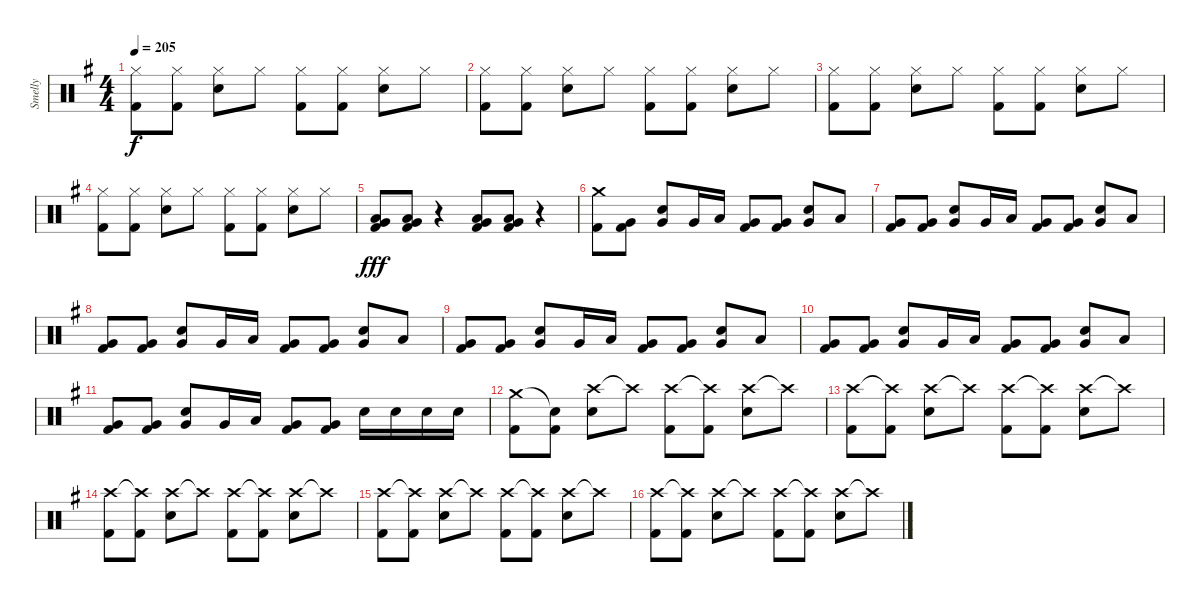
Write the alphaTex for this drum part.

\track ("Smelly" "Smelly") {instrument percussion}
\staff {score}
\articulation defaults
\ts (4 4)
\tempo 205
\clef neutral
\ks eminor
("Hi-Hat (closed)" "Kick (hit) 2").8{dy f} ("Hi-Hat (closed)" "Kick (hit) 2").8 ("Hi-Hat (closed)" "Snare (hit) 2").8 "Hi-Hat (closed)".8 ("Hi-Hat (closed)" "Kick (hit) 2").8 ("Hi-Hat (closed)" "Kick (hit) 2").8 ("Hi-Hat (closed)" "Snare (hit) 2").8 "Hi-Hat (closed)".8 |
("Hi-Hat (closed)" "Kick (hit) 2").8 ("Hi-Hat (closed)" "Kick (hit) 2").8 ("Hi-Hat (closed)" "Snare (hit) 2").8 "Hi-Hat (closed)".8 ("Hi-Hat (closed)" "Kick (hit) 2").8 ("Hi-Hat (closed)" "Kick (hit) 2").8 ("Hi-Hat (closed)" "Snare (hit) 2").8 "Hi-Hat (closed)".8 |
("Hi-Hat (closed)" "Kick (hit) 2").8 ("Hi-Hat (closed)" "Kick (hit) 2").8 ("Hi-Hat (closed)" "Snare (hit) 2").8 "Hi-Hat (closed)".8 ("Hi-Hat (closed)" "Kick (hit) 2").8 ("Hi-Hat (closed)" "Kick (hit) 2").8 ("Hi-Hat (closed)" "Snare (hit) 2").8 "Hi-Hat (closed)".8 |
("Hi-Hat (closed)" "Kick (hit) 2").8 ("Hi-Hat (closed)" "Kick (hit) 2").8 ("Hi-Hat (closed)" "Snare (hit) 2").8 "Hi-Hat (closed)".8 ("Hi-Hat (closed)" "Kick (hit) 2").8 ("Hi-Hat (closed)" "Kick (hit) 2").8 ("Hi-Hat (closed)" "Snare (hit) 2").8 "Hi-Hat (closed)".8 |
("Very Low Tom (hit)" "Low Floor Tom (hit)" "Kick (hit) 2").8{dy fff} ("Very Low Tom (hit)" "Low Floor Tom (hit)" "Kick (hit) 2").8 r.4 ("Very Low Tom (hit)" "Low Floor Tom (hit)" "Kick (hit) 2").8 ("Very Low Tom (hit)" "Low Floor Tom (hit)" "Kick (hit) 2").8 r.4 |
("Crash medium (hit)" "Kick (hit) 2").8 ("Very Low Tom (hit)" "Kick (hit) 2").8 ("Very Low Tom (hit)" "Electric Snare (hit)").8 "Very Low Tom (hit)".16 "Low Floor Tom (hit)".16 ("Very Low Tom (hit)" "Kick (hit) 2").8 ("Very Low Tom (hit)" "Kick (hit) 2").8 ("Very Low Tom (hit)" "Electric Snare (hit)").8 "Low Floor Tom (hit)".8 |
("Very Low Tom (hit)" "Kick (hit) 2").8 ("Very Low Tom (hit)" "Kick (hit) 2").8 ("Very Low Tom (hit)" "Electric Snare (hit)").8 "Very Low Tom (hit)".16 "Low Floor Tom (hit)".16 ("Very Low Tom (hit)" "Kick (hit) 2").8 ("Very Low Tom (hit)" "Kick (hit) 2").8 ("Very Low Tom (hit)" "Electric Snare (hit)").8 "Low Floor Tom (hit)".8 |
("Very Low Tom (hit)" "Kick (hit) 2").8 ("Very Low Tom (hit)" "Kick (hit) 2").8 ("Very Low Tom (hit)" "Electric Snare (hit)").8 "Very Low Tom (hit)".16 "Low Floor Tom (hit)".16 ("Very Low Tom (hit)" "Kick (hit) 2").8 ("Very Low Tom (hit)" "Kick (hit) 2").8 ("Very Low Tom (hit)" "Electric Snare (hit)").8 "Low Floor Tom (hit)".8 |
("Very Low Tom (hit)" "Kick (hit) 2").8 ("Very Low Tom (hit)" "Kick (hit) 2").8 ("Very Low Tom (hit)" "Electric Snare (hit)").8 "Very Low Tom (hit)".16 "Low Floor Tom (hit)".16 ("Very Low Tom (hit)" "Kick (hit) 2").8 ("Very Low Tom (hit)" "Kick (hit) 2").8 ("Very Low Tom (hit)" "Electric Snare (hit)").8 "Low Floor Tom (hit)".8 |
("Very Low Tom (hit)" "Kick (hit) 2").8 ("Very Low Tom (hit)" "Kick (hit) 2").8 ("Very Low Tom (hit)" "Electric Snare (hit)").8 "Very Low Tom (hit)".16 "Low Floor Tom (hit)".16 ("Very Low Tom (hit)" "Kick (hit) 2").8 ("Very Low Tom (hit)" "Kick (hit) 2").8 ("Very Low Tom (hit)" "Electric Snare (hit)").8 "Low Floor Tom (hit)".8 |
("Very Low Tom (hit)" "Kick (hit) 2").8 ("Very Low Tom (hit)" "Kick (hit) 2").8 ("Very Low Tom (hit)" "Electric Snare (hit)").8 "Very Low Tom (hit)".16 "Low Floor Tom (hit)".16 ("Very Low Tom (hit)" "Kick (hit) 2").8 ("Very Low Tom (hit)" "Kick (hit) 2").8 "Electric Snare (hit)".16 "Electric Snare (hit)".16 "Electric Snare (hit)".16 "Electric Snare (hit)".16 |
("Crash medium (hit)" "Kick (hit) 2").8 ("Snare (hit)"{t} "Kick (hit) 2").8 ("Crash high (hit)" "Electric Snare (hit)").8 "Crash high (hit)"{t}.8 ("Crash high (hit)" "Kick (hit) 2").8 ("Crash high (hit)"{t} "Kick (hit) 2").8 ("Crash high (hit)" "Electric Snare (hit)").8 "Crash high (hit)"{t}.8 |
("Crash high (hit)" "Kick (hit) 2").8 ("Crash high (hit)"{t} "Kick (hit) 2").8 ("Crash high (hit)" "Electric Snare (hit)").8 "Crash high (hit)"{t}.8 ("Crash high (hit)" "Kick (hit) 2").8 ("Crash high (hit)"{t} "Kick (hit) 2").8 ("Crash high (hit)" "Electric Snare (hit)").8 "Crash high (hit)"{t}.8 |
("Crash high (hit)" "Kick (hit) 2").8 ("Crash high (hit)"{t} "Kick (hit) 2").8 ("Crash high (hit)" "Electric Snare (hit)").8 "Crash high (hit)"{t}.8 ("Crash high (hit)" "Kick (hit) 2").8 ("Crash high (hit)"{t} "Kick (hit) 2").8 ("Crash high (hit)" "Electric Snare (hit)").8 "Crash high (hit)"{t}.8 |
("Crash high (hit)" "Kick (hit) 2").8 ("Crash high (hit)"{t} "Kick (hit) 2").8 ("Crash high (hit)" "Electric Snare (hit)").8 "Crash high (hit)"{t}.8 ("Crash high (hit)" "Kick (hit) 2").8 ("Crash high (hit)"{t} "Kick (hit) 2").8 ("Crash high (hit)" "Electric Snare (hit)").8 "Crash high (hit)"{t}.8 |
("Crash high (hit)" "Kick (hit) 2").8 ("Crash high (hit)"{t} "Kick (hit) 2").8 ("Crash high (hit)" "Electric Snare (hit)").8 "Crash high (hit)"{t}.8 ("Crash high (hit)" "Kick (hit) 2").8 ("Crash high (hit)"{t} "Kick (hit) 2").8 ("Crash high (hit)" "Electric Snare (hit)").8 "Crash high (hit)"{t}.8
